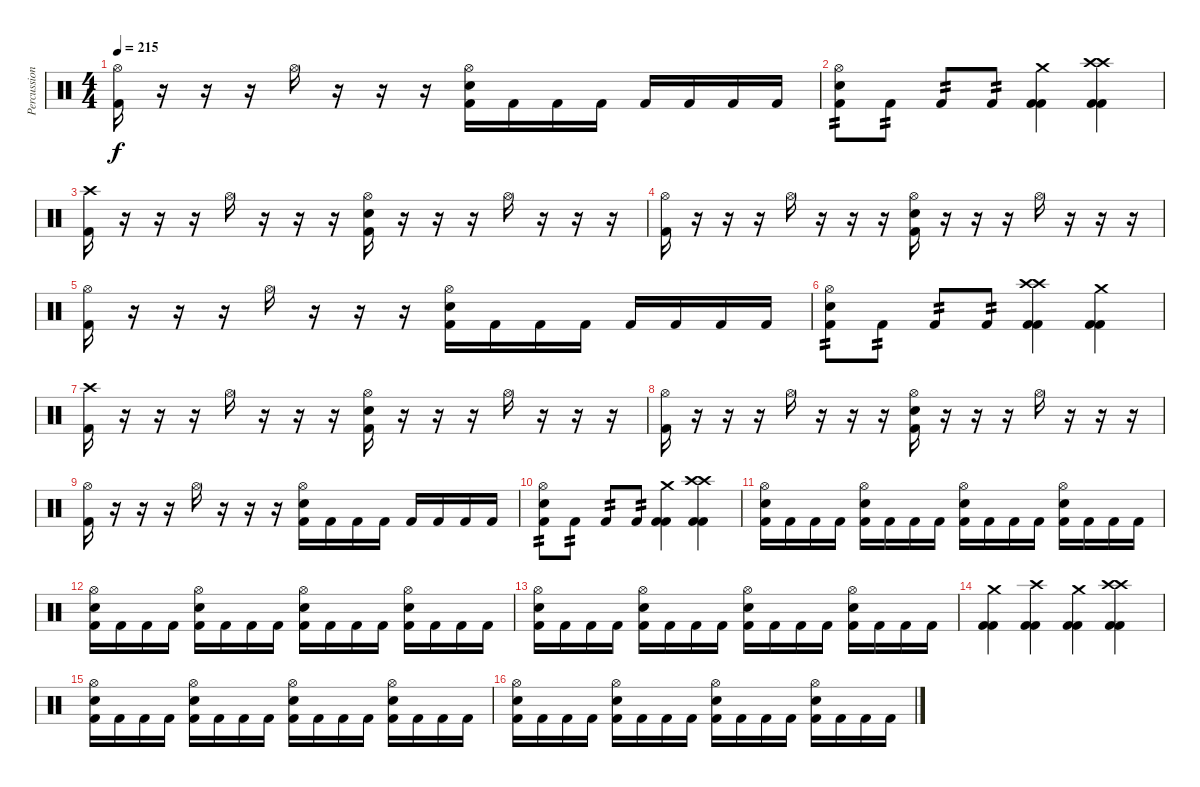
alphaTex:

\track ("Percussion" "Percussion") {instrument percussion}
\staff {score}
\articulation defaults
\ts (4 4)
\tempo 215
\clef neutral
\ks c
("Hi-Hat (open)" "Kick (hit) 2").16{dy f} r.16 r.16 r.16 "Hi-Hat (open)".16 r.16 r.16 r.16 ("Hi-Hat (open)" "Electric Snare (hit)" "Kick (hit) 2").16 "Kick (hit) 2".16 "Kick (hit) 2".16 "Kick (hit) 2".16 "Kick (hit) 2".16 "Kick (hit) 2".16 "Kick (hit) 2".16 "Kick (hit) 2".16 |
("Hi-Hat (open)" "Electric Snare (hit)" "Kick (hit) 2").8{tp 2} "Kick (hit) 2".8{tp 2} "Kick (hit) 2".8{tp 2} "Kick (hit) 2".8{tp 2} ("Crash medium (hit)" "Kick (hit) 2" "Kick (hit) 2").4 ("Crash high (hit)" "Crash high (hit)" "Kick (hit) 2" "Kick (hit) 2").4 |
("Crash high (hit)" "Kick (hit) 2").16 r.16 r.16 r.16 "Hi-Hat (open)".16 r.16 r.16 r.16 ("Hi-Hat (open)" "Electric Snare (hit)" "Kick (hit) 2").16 r.16 r.16 r.16 "Hi-Hat (open)".16 r.16 r.16 r.16 |
("Hi-Hat (open)" "Kick (hit) 2").16 r.16 r.16 r.16 "Hi-Hat (open)".16 r.16 r.16 r.16 ("Hi-Hat (open)" "Electric Snare (hit)" "Kick (hit) 2").16 r.16 r.16 r.16 "Hi-Hat (open)".16 r.16 r.16 r.16 |
("Hi-Hat (open)" "Kick (hit) 2").16 r.16 r.16 r.16 "Hi-Hat (open)".16 r.16 r.16 r.16 ("Hi-Hat (open)" "Electric Snare (hit)" "Kick (hit) 2").16 "Kick (hit) 2".16 "Kick (hit) 2".16 "Kick (hit) 2".16 "Kick (hit) 2".16 "Kick (hit) 2".16 "Kick (hit) 2".16 "Kick (hit) 2".16 |
("Hi-Hat (open)" "Electric Snare (hit)" "Kick (hit) 2").8{tp 2} "Kick (hit) 2".8{tp 2} "Kick (hit) 2".8{tp 2} "Kick (hit) 2".8{tp 2} ("Crash high (hit)" "Crash high (hit)" "Kick (hit) 2" "Kick (hit) 2").4 ("Crash medium (hit)" "Kick (hit) 2" "Kick (hit) 2").4 |
("Crash high (hit)" "Kick (hit) 2").16 r.16 r.16 r.16 "Hi-Hat (open)".16 r.16 r.16 r.16 ("Hi-Hat (open)" "Electric Snare (hit)" "Kick (hit) 2").16 r.16 r.16 r.16 "Hi-Hat (open)".16 r.16 r.16 r.16 |
("Hi-Hat (open)" "Kick (hit) 2").16 r.16 r.16 r.16 "Hi-Hat (open)".16 r.16 r.16 r.16 ("Hi-Hat (open)" "Electric Snare (hit)" "Kick (hit) 2").16 r.16 r.16 r.16 "Hi-Hat (open)".16 r.16 r.16 r.16 |
("Hi-Hat (open)" "Kick (hit) 2").16 r.16 r.16 r.16 "Hi-Hat (open)".16 r.16 r.16 r.16 ("Hi-Hat (open)" "Electric Snare (hit)" "Kick (hit) 2").16 "Kick (hit) 2".16 "Kick (hit) 2".16 "Kick (hit) 2".16 "Kick (hit) 2".16 "Kick (hit) 2".16 "Kick (hit) 2".16 "Kick (hit) 2".16 |
("Hi-Hat (open)" "Electric Snare (hit)" "Kick (hit) 2").8{tp 2} "Kick (hit) 2".8{tp 2} "Kick (hit) 2".8{tp 2} "Kick (hit) 2".8{tp 2} ("Crash medium (hit)" "Kick (hit) 2" "Kick (hit) 2").4 ("Crash high (hit)" "Crash high (hit)" "Kick (hit) 2" "Kick (hit) 2").4 |
("Hi-Hat (open)" "Electric Snare (hit)" "Kick (hit) 2").16 "Kick (hit) 2".16 "Kick (hit) 2".16 "Kick (hit) 2".16 ("Hi-Hat (open)" "Electric Snare (hit)" "Kick (hit) 2").16 "Kick (hit) 2".16 "Kick (hit) 2".16 "Kick (hit) 2".16 ("Hi-Hat (open)" "Electric Snare (hit)" "Kick (hit) 2").16 "Kick (hit) 2".16 "Kick (hit) 2".16 "Kick (hit) 2".16 ("Hi-Hat (open)" "Electric Snare (hit)" "Kick (hit) 2").16 "Kick (hit) 2".16 "Kick (hit) 2".16 "Kick (hit) 2".16 |
("Hi-Hat (open)" "Electric Snare (hit)" "Kick (hit) 2").16 "Kick (hit) 2".16 "Kick (hit) 2".16 "Kick (hit) 2".16 ("Hi-Hat (open)" "Electric Snare (hit)" "Kick (hit) 2").16 "Kick (hit) 2".16 "Kick (hit) 2".16 "Kick (hit) 2".16 ("Hi-Hat (open)" "Electric Snare (hit)" "Kick (hit) 2").16 "Kick (hit) 2".16 "Kick (hit) 2".16 "Kick (hit) 2".16 ("Hi-Hat (open)" "Electric Snare (hit)" "Kick (hit) 2").16 "Kick (hit) 2".16 "Kick (hit) 2".16 "Kick (hit) 2".16 |
("Hi-Hat (open)" "Electric Snare (hit)" "Kick (hit) 2").16 "Kick (hit) 2".16 "Kick (hit) 2".16 "Kick (hit) 2".16 ("Hi-Hat (open)" "Electric Snare (hit)" "Kick (hit) 2").16 "Kick (hit) 2".16 "Kick (hit) 2".16 "Kick (hit) 2".16 ("Hi-Hat (open)" "Electric Snare (hit)" "Kick (hit) 2").16 "Kick (hit) 2".16 "Kick (hit) 2".16 "Kick (hit) 2".16 ("Hi-Hat (open)" "Electric Snare (hit)" "Kick (hit) 2").16 "Kick (hit) 2".16 "Kick (hit) 2".16 "Kick (hit) 2".16 |
("Crash medium (hit)" "Kick (hit) 2" "Kick (hit) 2").4 ("Crash high (hit)" "Kick (hit) 2" "Kick (hit) 2").4 ("Crash medium (hit)" "Kick (hit) 2" "Kick (hit) 2").4 ("Crash high (hit)" "Crash high (hit)" "Kick (hit) 2" "Kick (hit) 2").4 |
("Hi-Hat (open)" "Electric Snare (hit)" "Kick (hit) 2").16 "Kick (hit) 2".16 "Kick (hit) 2".16 "Kick (hit) 2".16 ("Hi-Hat (open)" "Electric Snare (hit)" "Kick (hit) 2").16 "Kick (hit) 2".16 "Kick (hit) 2".16 "Kick (hit) 2".16 ("Hi-Hat (open)" "Electric Snare (hit)" "Kick (hit) 2").16 "Kick (hit) 2".16 "Kick (hit) 2".16 "Kick (hit) 2".16 ("Hi-Hat (open)" "Electric Snare (hit)" "Kick (hit) 2").16 "Kick (hit) 2".16 "Kick (hit) 2".16 "Kick (hit) 2".16 |
("Hi-Hat (open)" "Electric Snare (hit)" "Kick (hit) 2").16 "Kick (hit) 2".16 "Kick (hit) 2".16 "Kick (hit) 2".16 ("Hi-Hat (open)" "Electric Snare (hit)" "Kick (hit) 2").16 "Kick (hit) 2".16 "Kick (hit) 2".16 "Kick (hit) 2".16 ("Hi-Hat (open)" "Electric Snare (hit)" "Kick (hit) 2").16 "Kick (hit) 2".16 "Kick (hit) 2".16 "Kick (hit) 2".16 ("Hi-Hat (open)" "Electric Snare (hit)" "Kick (hit) 2").16 "Kick (hit) 2".16 "Kick (hit) 2".16 "Kick (hit) 2".16
